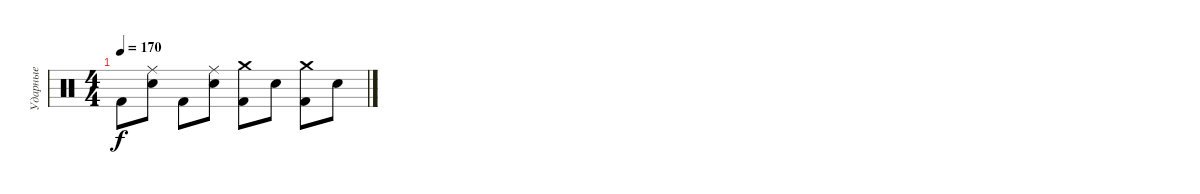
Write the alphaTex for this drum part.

\track ("Ударные" "Ударные") {instrument percussion}
\staff {score}
\articulation defaults
\ts (4 4)
\tempo 170
\clef neutral
\ks c "Kick (hit) 2".8{dy f}
("Ride (middle)" "Electric Snare (hit)").8 "Kick (hit) 2".8 ("Ride (middle)" "Electric Snare (hit)").8 ("Crash medium (hit)" "Kick (hit) 2").8 "Electric Snare (hit)".8 ("Crash medium (hit)" "Kick (hit) 2").8 "Electric Snare (hit)".8
